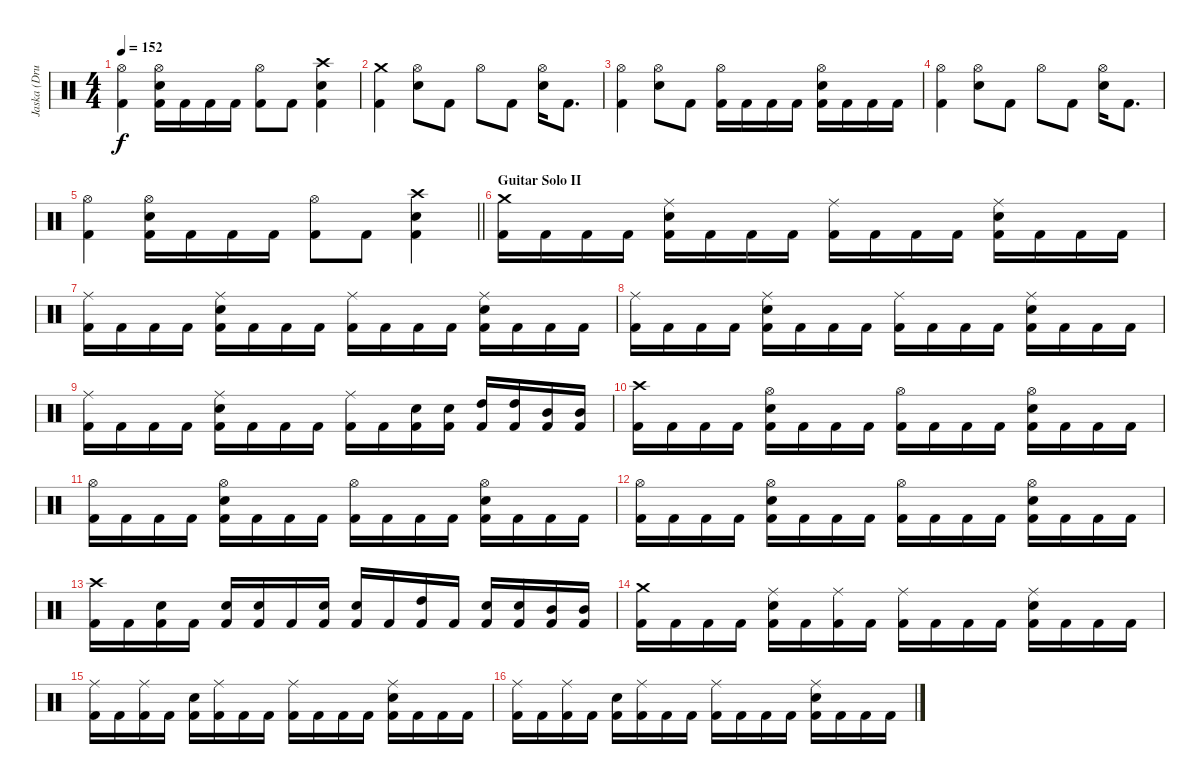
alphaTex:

\track ("Jaska (Drums)" "Jaska (Dru") {instrument percussion}
\staff {score}
\articulation defaults
\ts (4 4)
\tempo 152
\clef neutral
\ks c
("Hi-Hat (open)" "Kick (hit) 2").4{dy f} ("Hi-Hat (open)" "Electric Snare (hit)" "Kick (hit) 2").16 "Kick (hit) 2".16 "Kick (hit) 2".16 "Kick (hit) 2".16 ("Hi-Hat (open)" "Kick (hit) 2").8 "Kick (hit) 2".8 ("Crash high (hit)" "Electric Snare (hit)" "Kick (hit) 2").4 |
("Crash medium (hit)" "Kick (hit) 2").4 ("Hi-Hat (open)" "Electric Snare (hit)").8 "Kick (hit) 2".8 "Hi-Hat (open)".8 "Kick (hit) 2".8 ("Hi-Hat (open)" "Electric Snare (hit)").16 "Kick (hit) 2".8{d} |
("Hi-Hat (open)" "Kick (hit) 2").4 ("Hi-Hat (open)" "Electric Snare (hit)").8 "Kick (hit) 2".8 ("Hi-Hat (open)" "Kick (hit) 2").16 "Kick (hit) 2".16 "Kick (hit) 2".16 "Kick (hit) 2".16 ("Hi-Hat (open)" "Electric Snare (hit)" "Kick (hit) 2").16 "Kick (hit) 2".16 "Kick (hit) 2".16 "Kick (hit) 2".16 |
("Hi-Hat (open)" "Kick (hit) 2").4 ("Hi-Hat (open)" "Electric Snare (hit)").8 "Kick (hit) 2".8 "Hi-Hat (open)".8 "Kick (hit) 2".8 ("Hi-Hat (open)" "Electric Snare (hit)").16 "Kick (hit) 2".8{d} |
\barLineRight lightlight
("Hi-Hat (open)" "Kick (hit) 2").4 ("Hi-Hat (open)" "Electric Snare (hit)" "Kick (hit) 2").16 "Kick (hit) 2".16 "Kick (hit) 2".16 "Kick (hit) 2".16 ("Hi-Hat (open)" "Kick (hit) 2").8 "Kick (hit) 2".8 ("Crash high (hit)" "Electric Snare (hit)" "Kick (hit) 2").4 |
\section ("" "Guitar Solo II")
("Crash medium (hit)" "Kick (hit) 2").16{volume 13} "Kick (hit) 2".16 "Kick (hit) 2".16 "Kick (hit) 2".16 ("Ride (middle)" "Electric Snare (hit)" "Kick (hit) 2").16 "Kick (hit) 2".16 "Kick (hit) 2".16 "Kick (hit) 2".16 ("Ride (middle)" "Kick (hit) 2").16 "Kick (hit) 2".16 "Kick (hit) 2".16 "Kick (hit) 2".16 ("Ride (middle)" "Electric Snare (hit)" "Kick (hit) 2").16 "Kick (hit) 2".16 "Kick (hit) 2".16 "Kick (hit) 2".16 |
("Ride (middle)" "Kick (hit) 2").16 "Kick (hit) 2".16 "Kick (hit) 2".16 "Kick (hit) 2".16 ("Ride (middle)" "Electric Snare (hit)" "Kick (hit) 2").16 "Kick (hit) 2".16 "Kick (hit) 2".16 "Kick (hit) 2".16 ("Ride (middle)" "Kick (hit) 2").16 "Kick (hit) 2".16 "Kick (hit) 2".16 "Kick (hit) 2".16 ("Ride (middle)" "Electric Snare (hit)" "Kick (hit) 2").16 "Kick (hit) 2".16 "Kick (hit) 2".16 "Kick (hit) 2".16 |
("Ride (middle)" "Kick (hit) 2").16 "Kick (hit) 2".16 "Kick (hit) 2".16 "Kick (hit) 2".16 ("Ride (middle)" "Electric Snare (hit)" "Kick (hit) 2").16 "Kick (hit) 2".16 "Kick (hit) 2".16 "Kick (hit) 2".16 ("Ride (middle)" "Kick (hit) 2").16 "Kick (hit) 2".16 "Kick (hit) 2".16 "Kick (hit) 2".16 ("Ride (middle)" "Electric Snare (hit)" "Kick (hit) 2").16 "Kick (hit) 2".16 "Kick (hit) 2".16 "Kick (hit) 2".16 |
("Ride (middle)" "Kick (hit) 2").16 "Kick (hit) 2".16 "Kick (hit) 2".16 "Kick (hit) 2".16 ("Ride (middle)" "Electric Snare (hit)" "Kick (hit) 2").16 "Kick (hit) 2".16 "Kick (hit) 2".16 "Kick (hit) 2".16 ("Ride (middle)" "Kick (hit) 2").16 "Kick (hit) 2".16 ("Electric Snare (hit)" "Kick (hit) 2").16 ("Electric Snare (hit)" "Kick (hit) 2").16 ("High Tom (hit)" "Kick (hit) 2").16 ("High Tom (hit)" "Kick (hit) 2").16 ("Mid Tom (hit)" "Kick (hit) 2").16 ("Mid Tom (hit)" "Kick (hit) 2").16 |
("Crash high (hit)" "Kick (hit) 2").16 "Kick (hit) 2".16 "Kick (hit) 2".16 "Kick (hit) 2".16 ("Hi-Hat (open)" "Electric Snare (hit)" "Kick (hit) 2").16 "Kick (hit) 2".16 "Kick (hit) 2".16 "Kick (hit) 2".16 ("Hi-Hat (open)" "Kick (hit) 2").16 "Kick (hit) 2".16 "Kick (hit) 2".16 "Kick (hit) 2".16 ("Hi-Hat (open)" "Electric Snare (hit)" "Kick (hit) 2").16 "Kick (hit) 2".16 "Kick (hit) 2".16 "Kick (hit) 2".16 |
("Hi-Hat (open)" "Kick (hit) 2").16 "Kick (hit) 2".16 "Kick (hit) 2".16 "Kick (hit) 2".16 ("Hi-Hat (open)" "Electric Snare (hit)" "Kick (hit) 2").16 "Kick (hit) 2".16 "Kick (hit) 2".16 "Kick (hit) 2".16 ("Hi-Hat (open)" "Kick (hit) 2").16 "Kick (hit) 2".16 "Kick (hit) 2".16 "Kick (hit) 2".16 ("Hi-Hat (open)" "Electric Snare (hit)" "Kick (hit) 2").16 "Kick (hit) 2".16 "Kick (hit) 2".16 "Kick (hit) 2".16 |
("Hi-Hat (open)" "Kick (hit) 2").16 "Kick (hit) 2".16 "Kick (hit) 2".16 "Kick (hit) 2".16 ("Hi-Hat (open)" "Electric Snare (hit)" "Kick (hit) 2").16 "Kick (hit) 2".16 "Kick (hit) 2".16 "Kick (hit) 2".16 ("Hi-Hat (open)" "Kick (hit) 2").16 "Kick (hit) 2".16 "Kick (hit) 2".16 "Kick (hit) 2".16 ("Hi-Hat (open)" "Electric Snare (hit)" "Kick (hit) 2").16 "Kick (hit) 2".16 "Kick (hit) 2".16 "Kick (hit) 2".16 |
("Crash high (hit)" "Kick (hit) 2").16 "Kick (hit) 2".16 ("Electric Snare (hit)" "Kick (hit) 2").16 "Kick (hit) 2".16 ("Electric Snare (hit)" "Kick (hit) 2").16 ("Electric Snare (hit)" "Kick (hit) 2").16 "Kick (hit) 2".16 ("Electric Snare (hit)" "Kick (hit) 2").16 ("Electric Snare (hit)" "Kick (hit) 2").16 "Kick (hit) 2".16 ("High Tom (hit)" "Kick (hit) 2").16 "Kick (hit) 2".16 ("Electric Snare (hit)" "Kick (hit) 2").16 ("Electric Snare (hit)" "Kick (hit) 2").16 ("Mid Tom (hit)" "Kick (hit) 2").16 ("Mid Tom (hit)" "Kick (hit) 2").16 |
("Crash medium (hit)" "Kick (hit) 2").16 "Kick (hit) 2".16 "Kick (hit) 2".16 "Kick (hit) 2".16 ("Ride (middle)" "Electric Snare (hit)" "Kick (hit) 2").16 "Kick (hit) 2".16 ("Ride (middle)" "Kick (hit) 2").16 "Kick (hit) 2".16 ("Ride (middle)" "Kick (hit) 2").16 "Kick (hit) 2".16 "Kick (hit) 2".16 "Kick (hit) 2".16 ("Ride (middle)" "Electric Snare (hit)" "Kick (hit) 2").16 "Kick (hit) 2".16 "Kick (hit) 2".16 "Kick (hit) 2".16 |
("Ride (middle)" "Kick (hit) 2").16 "Kick (hit) 2".16 ("Ride (middle)" "Kick (hit) 2").16 "Kick (hit) 2".16 ("Electric Snare (hit)" "Kick (hit) 2").16 ("Ride (middle)" "Kick (hit) 2").16 "Kick (hit) 2".16 "Kick (hit) 2".16 ("Ride (middle)" "Kick (hit) 2").16 "Kick (hit) 2".16 "Kick (hit) 2".16 "Kick (hit) 2".16 ("Ride (middle)" "Electric Snare (hit)" "Kick (hit) 2").16 "Kick (hit) 2".16 "Kick (hit) 2".16 "Kick (hit) 2".16 |
("Ride (middle)" "Kick (hit) 2").16 "Kick (hit) 2".16 ("Ride (middle)" "Kick (hit) 2").16 "Kick (hit) 2".16 ("Electric Snare (hit)" "Kick (hit) 2").16 ("Ride (middle)" "Kick (hit) 2").16 "Kick (hit) 2".16 "Kick (hit) 2".16 ("Ride (middle)" "Kick (hit) 2").16 "Kick (hit) 2".16 "Kick (hit) 2".16 "Kick (hit) 2".16 ("Ride (middle)" "Electric Snare (hit)" "Kick (hit) 2").16 "Kick (hit) 2".16 "Kick (hit) 2".16 "Kick (hit) 2".16
